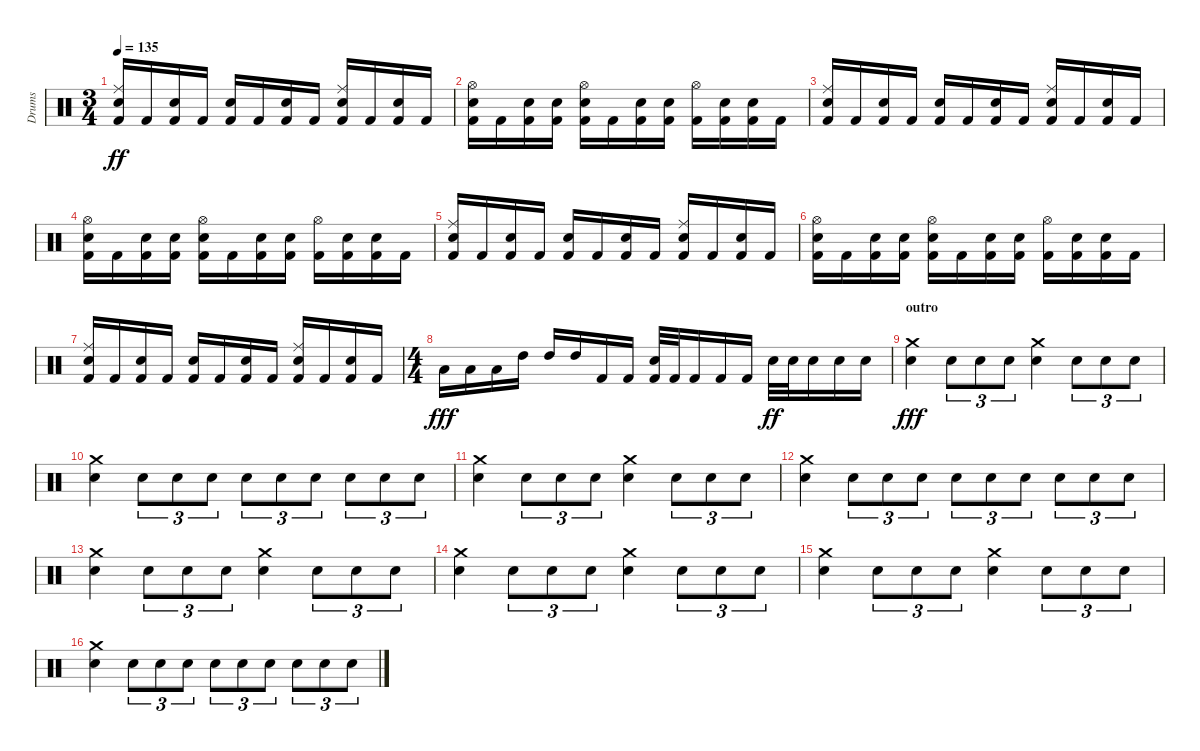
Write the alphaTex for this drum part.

\track ("Drums" "Drums") {instrument percussion}
\staff {score}
\articulation defaults
\ts (3 4)
\tempo 135
\clef neutral
\ks c
("Electric Snare (hit)" "Ride (middle)" "Kick (hit) 2").16{dy ff} "Kick (hit) 2".16 ("Electric Snare (hit)" "Kick (hit) 2").16 "Kick (hit) 2".16 ("Electric Snare (hit)" "Kick (hit) 2").16 "Kick (hit) 2".16 ("Electric Snare (hit)" "Kick (hit) 2").16 "Kick (hit) 2".16 ("Electric Snare (hit)" "Ride (middle)" "Kick (hit) 2").16 "Kick (hit) 2".16 ("Electric Snare (hit)" "Kick (hit) 2").16 "Kick (hit) 2".16 |
("Hi-Hat (open)" "Electric Snare (hit)" "Kick (hit) 2").16 "Kick (hit) 2".16 ("Electric Snare (hit)" "Kick (hit) 2").16 ("Electric Snare (hit)" "Kick (hit) 2").16 ("Hi-Hat (open)" "Electric Snare (hit)" "Kick (hit) 2").16 "Kick (hit) 2".16 ("Electric Snare (hit)" "Kick (hit) 2").16 ("Electric Snare (hit)" "Kick (hit) 2").16 ("Hi-Hat (open)" "Kick (hit) 2").16 ("Electric Snare (hit)" "Kick (hit) 2").16 ("Electric Snare (hit)" "Kick (hit) 2").16 "Kick (hit) 2".16 |
("Electric Snare (hit)" "Ride (middle)" "Kick (hit) 2").16 "Kick (hit) 2".16 ("Electric Snare (hit)" "Kick (hit) 2").16 "Kick (hit) 2".16 ("Electric Snare (hit)" "Kick (hit) 2").16 "Kick (hit) 2".16 ("Electric Snare (hit)" "Kick (hit) 2").16 "Kick (hit) 2".16 ("Electric Snare (hit)" "Ride (middle)" "Kick (hit) 2").16 "Kick (hit) 2".16 ("Electric Snare (hit)" "Kick (hit) 2").16 "Kick (hit) 2".16 |
("Hi-Hat (open)" "Electric Snare (hit)" "Kick (hit) 2").16 "Kick (hit) 2".16 ("Electric Snare (hit)" "Kick (hit) 2").16 ("Electric Snare (hit)" "Kick (hit) 2").16 ("Hi-Hat (open)" "Electric Snare (hit)" "Kick (hit) 2").16 "Kick (hit) 2".16 ("Electric Snare (hit)" "Kick (hit) 2").16 ("Electric Snare (hit)" "Kick (hit) 2").16 ("Hi-Hat (open)" "Kick (hit) 2").16 ("Electric Snare (hit)" "Kick (hit) 2").16 ("Electric Snare (hit)" "Kick (hit) 2").16 "Kick (hit) 2".16 |
("Electric Snare (hit)" "Ride (middle)" "Kick (hit) 2").16 "Kick (hit) 2".16 ("Electric Snare (hit)" "Kick (hit) 2").16 "Kick (hit) 2".16 ("Electric Snare (hit)" "Kick (hit) 2").16 "Kick (hit) 2".16 ("Electric Snare (hit)" "Kick (hit) 2").16 "Kick (hit) 2".16 ("Electric Snare (hit)" "Ride (middle)" "Kick (hit) 2").16 "Kick (hit) 2".16 ("Electric Snare (hit)" "Kick (hit) 2").16 "Kick (hit) 2".16 |
("Hi-Hat (open)" "Electric Snare (hit)" "Kick (hit) 2").16 "Kick (hit) 2".16 ("Electric Snare (hit)" "Kick (hit) 2").16 ("Electric Snare (hit)" "Kick (hit) 2").16 ("Hi-Hat (open)" "Electric Snare (hit)" "Kick (hit) 2").16 "Kick (hit) 2".16 ("Electric Snare (hit)" "Kick (hit) 2").16 ("Electric Snare (hit)" "Kick (hit) 2").16 ("Hi-Hat (open)" "Kick (hit) 2").16 ("Electric Snare (hit)" "Kick (hit) 2").16 ("Electric Snare (hit)" "Kick (hit) 2").16 "Kick (hit) 2".16 |
("Electric Snare (hit)" "Ride (middle)" "Kick (hit) 2").16 "Kick (hit) 2".16 ("Electric Snare (hit)" "Kick (hit) 2").16 "Kick (hit) 2".16 ("Electric Snare (hit)" "Kick (hit) 2").16 "Kick (hit) 2".16 ("Electric Snare (hit)" "Kick (hit) 2").16 "Kick (hit) 2".16 ("Electric Snare (hit)" "Ride (middle)" "Kick (hit) 2").16 "Kick (hit) 2".16 ("Electric Snare (hit)" "Kick (hit) 2").16 "Kick (hit) 2".16 |
\ts (4 4)
"Low Tom (hit)".16{dy fff} "Low Tom (hit)".16 "Low Tom (hit)".16 "High Tom (hit)".16 "High Tom (hit)".16 "High Tom (hit)".16 "Kick (hit) 2".16 "Kick (hit) 2".16 ("Electric Snare (hit)" "Kick (hit) 2").32 "Kick (hit) 2".32 "Kick (hit) 2".16 "Kick (hit) 2".16 "Kick (hit) 2".16 "Electric Snare (hit)".32{dy ff} "Electric Snare (hit)".32 "Electric Snare (hit)".16 "Electric Snare (hit)".16 "Electric Snare (hit)".16 |
\section ("" "outro")
("Electric Snare (hit)" "Crash medium (hit)").4{dy fff} "Electric Snare (hit)".8{tu (3 2)} "Electric Snare (hit)".8{tu (3 2)} "Electric Snare (hit)".8{tu (3 2)} ("Electric Snare (hit)" "Crash medium (hit)").4 "Electric Snare (hit)".8{tu (3 2)} "Electric Snare (hit)".8{tu (3 2)} "Electric Snare (hit)".8{tu (3 2)} |
("Electric Snare (hit)" "Crash medium (hit)").4 "Electric Snare (hit)".8{tu (3 2)} "Electric Snare (hit)".8{tu (3 2)} "Electric Snare (hit)".8{tu (3 2)} "Electric Snare (hit)".8{tu (3 2)} "Electric Snare (hit)".8{tu (3 2)} "Electric Snare (hit)".8{tu (3 2)} "Electric Snare (hit)".8{tu (3 2)} "Electric Snare (hit)".8{tu (3 2)} "Electric Snare (hit)".8{tu (3 2)} |
("Electric Snare (hit)" "Crash medium (hit)").4 "Electric Snare (hit)".8{tu (3 2)} "Electric Snare (hit)".8{tu (3 2)} "Electric Snare (hit)".8{tu (3 2)} ("Electric Snare (hit)" "Crash medium (hit)").4 "Electric Snare (hit)".8{tu (3 2)} "Electric Snare (hit)".8{tu (3 2)} "Electric Snare (hit)".8{tu (3 2)} |
("Electric Snare (hit)" "Crash medium (hit)").4 "Electric Snare (hit)".8{tu (3 2)} "Electric Snare (hit)".8{tu (3 2)} "Electric Snare (hit)".8{tu (3 2)} "Electric Snare (hit)".8{tu (3 2)} "Electric Snare (hit)".8{tu (3 2)} "Electric Snare (hit)".8{tu (3 2)} "Electric Snare (hit)".8{tu (3 2)} "Electric Snare (hit)".8{tu (3 2)} "Electric Snare (hit)".8{tu (3 2)} |
("Electric Snare (hit)" "Crash medium (hit)").4 "Electric Snare (hit)".8{tu (3 2)} "Electric Snare (hit)".8{tu (3 2)} "Electric Snare (hit)".8{tu (3 2)} ("Electric Snare (hit)" "Crash medium (hit)").4 "Electric Snare (hit)".8{tu (3 2)} "Electric Snare (hit)".8{tu (3 2)} "Electric Snare (hit)".8{tu (3 2)} |
("Electric Snare (hit)" "Crash medium (hit)").4 "Electric Snare (hit)".8{tu (3 2)} "Electric Snare (hit)".8{tu (3 2)} "Electric Snare (hit)".8{tu (3 2)} ("Electric Snare (hit)" "Crash medium (hit)").4 "Electric Snare (hit)".8{tu (3 2)} "Electric Snare (hit)".8{tu (3 2)} "Electric Snare (hit)".8{tu (3 2)} |
("Electric Snare (hit)" "Crash medium (hit)").4 "Electric Snare (hit)".8{tu (3 2)} "Electric Snare (hit)".8{tu (3 2)} "Electric Snare (hit)".8{tu (3 2)} ("Electric Snare (hit)" "Crash medium (hit)").4 "Electric Snare (hit)".8{tu (3 2)} "Electric Snare (hit)".8{tu (3 2)} "Electric Snare (hit)".8{tu (3 2)} |
("Electric Snare (hit)" "Crash medium (hit)").4 "Electric Snare (hit)".8{tu (3 2)} "Electric Snare (hit)".8{tu (3 2)} "Electric Snare (hit)".8{tu (3 2)} "Electric Snare (hit)".8{tu (3 2)} "Electric Snare (hit)".8{tu (3 2)} "Electric Snare (hit)".8{tu (3 2)} "Electric Snare (hit)".8{tu (3 2)} "Electric Snare (hit)".8{tu (3 2)} "Electric Snare (hit)".8{tu (3 2)}
